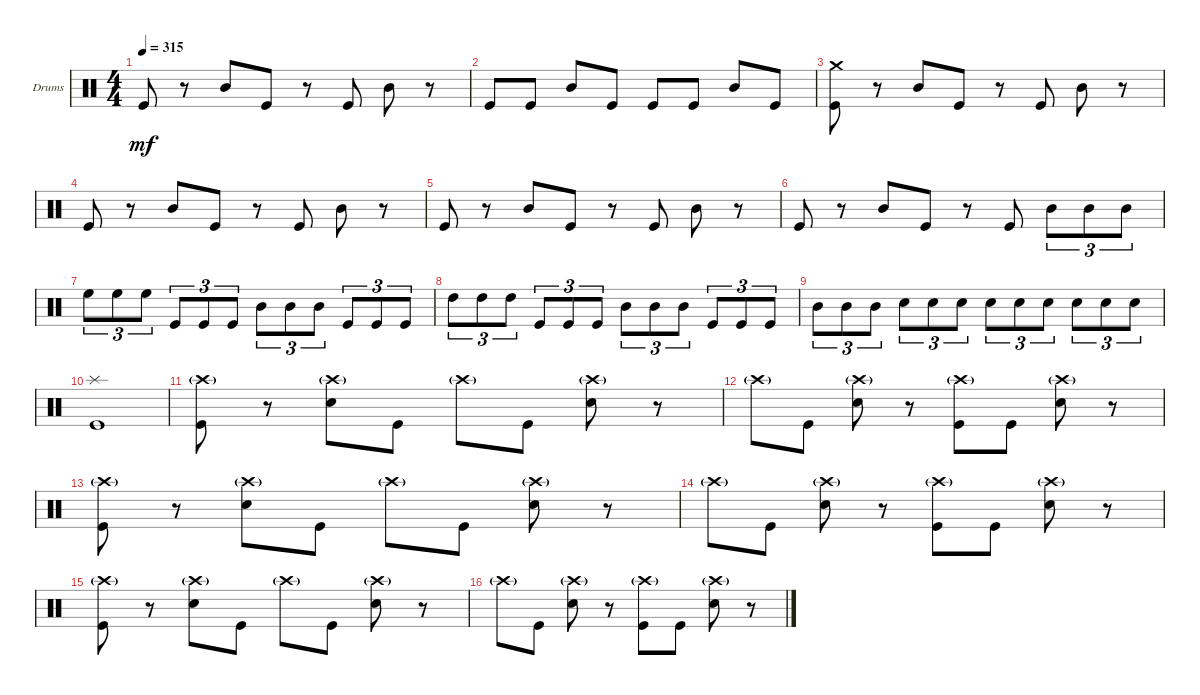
\bracketExtendMode groupsimilarinstruments
\firstSystemTrackNameOrientation horizontal
\otherSystemsTrackNameOrientation horizontal
\track ("Drumkit" "Drums") {instrument percussion}
\staff {score}
\articulation defaults
\ts (4 4)
\tempo 315
\clef neutral
\ks c "Kick (hit)".8{dy mf}
r.8 "Mid Tom (hit)".8 "Kick (hit)".8 r.8 "Kick (hit)".8 "Mid Tom (hit)".8 r.8 |
"Kick (hit)".8 "Kick (hit)".8 "Mid Tom (hit)".8 "Kick (hit)".8 "Kick (hit)".8 "Kick (hit)".8 "Mid Tom (hit)".8 "Kick (hit)".8 |
("Kick (hit)" "Crash medium (hit)").8 r.8 "Mid Tom (hit)".8 "Kick (hit)".8 r.8 "Kick (hit)".8 "Mid Tom (hit)".8 r.8 |
"Kick (hit)".8 r.8 "Mid Tom (hit)".8 "Kick (hit)".8 r.8 "Kick (hit)".8 "Mid Tom (hit)".8 r.8 |
"Kick (hit)".8 r.8 "Mid Tom (hit)".8 "Kick (hit)".8 r.8 "Kick (hit)".8 "Mid Tom (hit)".8 r.8 |
"Kick (hit)".8 r.8 "Mid Tom (hit)".8 "Kick (hit)".8 r.8 "Kick (hit)".8 "Mid Tom (hit)".8{tu (3 2)} "Mid Tom (hit)".8{tu (3 2)} "Mid Tom (hit)".8{tu (3 2)} |
"High Floor Tom (hit)".8{tu (3 2)} "High Floor Tom (hit)".8{tu (3 2)} "High Floor Tom (hit)".8{tu (3 2)} "Kick (hit)".8{tu (3 2)} "Kick (hit)".8{tu (3 2)} "Kick (hit)".8{tu (3 2)} "Mid Tom (hit)".8{tu (3 2)} "Mid Tom (hit)".8{tu (3 2)} "Mid Tom (hit)".8{tu (3 2)} "Kick (hit)".8{tu (3 2)} "Kick (hit)".8{tu (3 2)} "Kick (hit)".8{tu (3 2)} |
"High Tom (hit)".8{tu (3 2)} "High Tom (hit)".8{tu (3 2)} "High Tom (hit)".8{tu (3 2)} "Kick (hit)".8{tu (3 2)} "Kick (hit)".8{tu (3 2)} "Kick (hit)".8{tu (3 2)} "Mid Tom (hit)".8{tu (3 2)} "Mid Tom (hit)".8{tu (3 2)} "Mid Tom (hit)".8{tu (3 2)} "Kick (hit)".8{tu (3 2)} "Kick (hit)".8{tu (3 2)} "Kick (hit)".8{tu (3 2)} |
"Mid Tom (hit)".8{tu (3 2)} "Mid Tom (hit)".8{tu (3 2)} "Mid Tom (hit)".8{tu (3 2)} "Snare (hit) 2".8{tu (3 2)} "Snare (hit) 2".8{tu (3 2)} "Snare (hit) 2".8{tu (3 2)} "Snare (hit) 2".8{tu (3 2)} "Snare (hit) 2".8{tu (3 2)} "Snare (hit) 2".8{tu (3 2)} "Snare (hit) 2".8{tu (3 2)} "Snare (hit) 2".8{tu (3 2)} "Snare (hit) 2".8{tu (3 2)} |
("Kick (hit)" "Splash (hit)").1 |
("Kick (hit)" "Crash high (hit)"{g}).8 r.8 ("Snare (hit) 2" "Crash high (hit)"{g}).8 "Kick (hit)".8 "Crash high (hit)"{g}.8 "Kick (hit)".8 ("Snare (hit) 2" "Crash high (hit)"{g}).8 r.8 |
"Crash high (hit)"{g}.8 "Kick (hit)".8 ("Snare (hit) 2" "Crash high (hit)"{g}).8 r.8 ("Kick (hit)" "Crash high (hit)"{g}).8 "Kick (hit)".8 ("Snare (hit) 2" "Crash high (hit)"{g}).8 r.8 |
("Kick (hit)" "Crash high (hit)"{g}).8 r.8 ("Snare (hit) 2" "Crash high (hit)"{g}).8 "Kick (hit)".8 "Crash high (hit)"{g}.8 "Kick (hit)".8 ("Snare (hit) 2" "Crash high (hit)"{g}).8 r.8 |
"Crash high (hit)"{g}.8 "Kick (hit)".8 ("Snare (hit) 2" "Crash high (hit)"{g}).8 r.8 ("Kick (hit)" "Crash high (hit)"{g}).8 "Kick (hit)".8 ("Snare (hit) 2" "Crash high (hit)"{g}).8 r.8 |
("Kick (hit)" "Crash high (hit)"{g}).8 r.8 ("Snare (hit) 2" "Crash high (hit)"{g}).8 "Kick (hit)".8 "Crash high (hit)"{g}.8 "Kick (hit)".8 ("Snare (hit) 2" "Crash high (hit)"{g}).8 r.8 |
"Crash high (hit)"{g}.8 "Kick (hit)".8 ("Snare (hit) 2" "Crash high (hit)"{g}).8 r.8 ("Kick (hit)" "Crash high (hit)"{g}).8 "Kick (hit)".8 ("Snare (hit) 2" "Crash high (hit)"{g}).8 r.8
